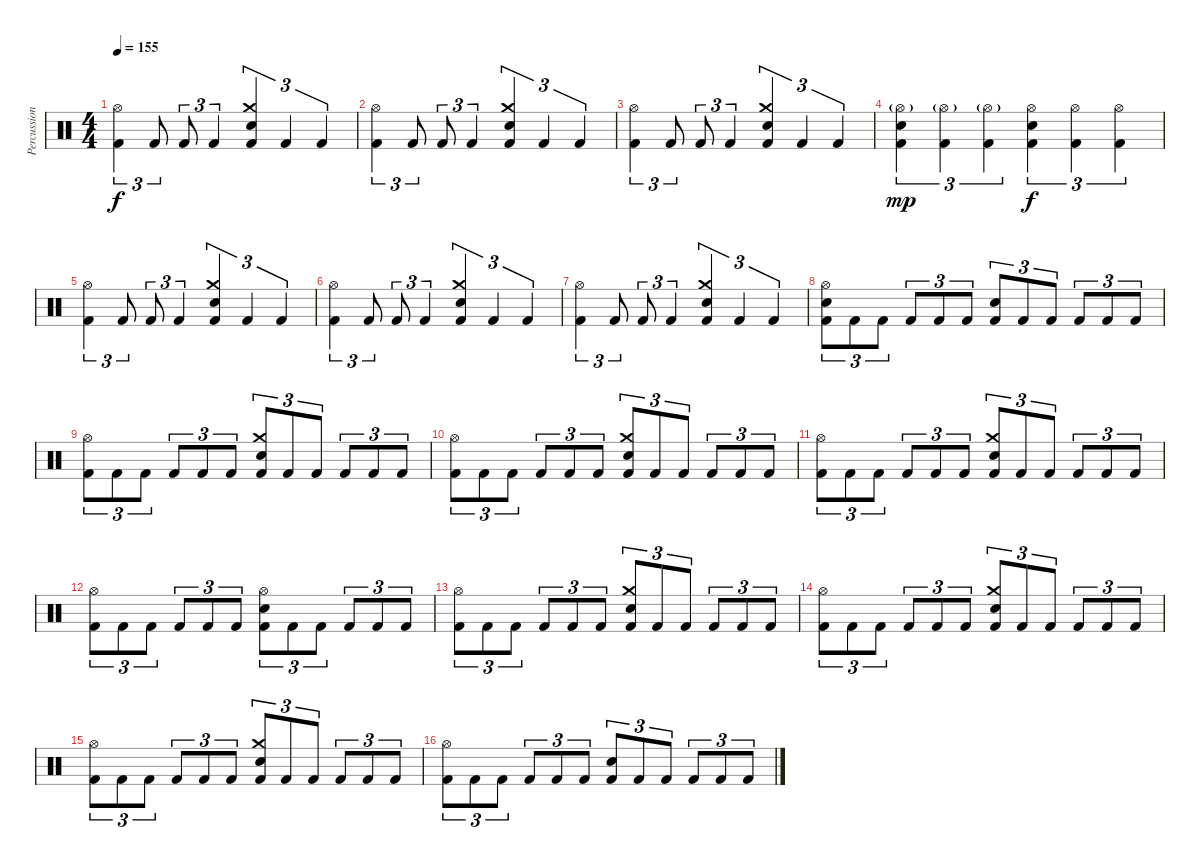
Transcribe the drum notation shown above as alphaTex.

\track ("Percussion" "Percussion") {instrument percussion}
\staff {score}
\articulation defaults
\ts (4 4)
\tempo 155
\clef neutral
\ks c
("Hi-Hat (open)" "Kick (hit) 2").4{tu (3 2) dy f} "Kick (hit) 2".8{tu (3 2)} "Kick (hit) 2".8{tu (3 2)} "Kick (hit) 2".4{tu (3 2)} ("Crash medium (hit)" "Electric Snare (hit)" "Kick (hit) 2").4{tu (3 2)} "Kick (hit) 2".4{tu (3 2)} "Kick (hit) 2".4{tu (3 2)} |
("Hi-Hat (open)" "Kick (hit) 2").4{tu (3 2)} "Kick (hit) 2".8{tu (3 2)} "Kick (hit) 2".8{tu (3 2)} "Kick (hit) 2".4{tu (3 2)} ("Crash medium (hit)" "Electric Snare (hit)" "Kick (hit) 2").4{tu (3 2)} "Kick (hit) 2".4{tu (3 2)} "Kick (hit) 2".4{tu (3 2)} |
("Hi-Hat (open)" "Kick (hit) 2").4{tu (3 2)} "Kick (hit) 2".8{tu (3 2)} "Kick (hit) 2".8{tu (3 2)} "Kick (hit) 2".4{tu (3 2)} ("Crash medium (hit)" "Electric Snare (hit)" "Kick (hit) 2").4{tu (3 2)} "Kick (hit) 2".4{tu (3 2)} "Kick (hit) 2".4{tu (3 2)} |
("Hi-Hat (open)"{g} "Electric Snare (hit)" "Kick (hit) 2").4{tu (3 2) dy mp} ("Hi-Hat (open)"{g} "Kick (hit) 2").4{tu (3 2)} ("Hi-Hat (open)"{g} "Kick (hit) 2").4{tu (3 2)} ("Hi-Hat (open)" "Electric Snare (hit)" "Kick (hit) 2").4{tu (3 2) dy f} ("Hi-Hat (open)" "Kick (hit) 2").4{tu (3 2)} ("Hi-Hat (open)" "Kick (hit) 2").4{tu (3 2)} |
("Hi-Hat (open)" "Kick (hit) 2").4{tu (3 2)} "Kick (hit) 2".8{tu (3 2)} "Kick (hit) 2".8{tu (3 2)} "Kick (hit) 2".4{tu (3 2)} ("Crash medium (hit)" "Electric Snare (hit)" "Kick (hit) 2").4{tu (3 2)} "Kick (hit) 2".4{tu (3 2)} "Kick (hit) 2".4{tu (3 2)} |
("Hi-Hat (open)" "Kick (hit) 2").4{tu (3 2)} "Kick (hit) 2".8{tu (3 2)} "Kick (hit) 2".8{tu (3 2)} "Kick (hit) 2".4{tu (3 2)} ("Crash medium (hit)" "Electric Snare (hit)" "Kick (hit) 2").4{tu (3 2)} "Kick (hit) 2".4{tu (3 2)} "Kick (hit) 2".4{tu (3 2)} |
("Hi-Hat (open)" "Kick (hit) 2").4{tu (3 2)} "Kick (hit) 2".8{tu (3 2)} "Kick (hit) 2".8{tu (3 2)} "Kick (hit) 2".4{tu (3 2)} ("Crash medium (hit)" "Electric Snare (hit)" "Kick (hit) 2").4{tu (3 2)} "Kick (hit) 2".4{tu (3 2)} "Kick (hit) 2".4{tu (3 2)} |
("Hi-Hat (open)" "Electric Snare (hit)" "Kick (hit) 2").8{tu (3 2)} "Kick (hit) 2".8{tu (3 2)} "Kick (hit) 2".8{tu (3 2)} "Kick (hit) 2".8{tu (3 2)} "Kick (hit) 2".8{tu (3 2)} "Kick (hit) 2".8{tu (3 2)} ("Electric Snare (hit)" "Kick (hit) 2").8{tu (3 2)} "Kick (hit) 2".8{tu (3 2)} "Kick (hit) 2".8{tu (3 2)} "Kick (hit) 2".8{tu (3 2)} "Kick (hit) 2".8{tu (3 2)} "Kick (hit) 2".8{tu (3 2)} |
("Hi-Hat (open)" "Kick (hit) 2").8{tu (3 2)} "Kick (hit) 2".8{tu (3 2)} "Kick (hit) 2".8{tu (3 2)} "Kick (hit) 2".8{tu (3 2)} "Kick (hit) 2".8{tu (3 2)} "Kick (hit) 2".8{tu (3 2)} ("Crash medium (hit)" "Electric Snare (hit)" "Kick (hit) 2").8{tu (3 2)} "Kick (hit) 2".8{tu (3 2)} "Kick (hit) 2".8{tu (3 2)} "Kick (hit) 2".8{tu (3 2)} "Kick (hit) 2".8{tu (3 2)} "Kick (hit) 2".8{tu (3 2)} |
("Hi-Hat (open)" "Kick (hit) 2").8{tu (3 2)} "Kick (hit) 2".8{tu (3 2)} "Kick (hit) 2".8{tu (3 2)} "Kick (hit) 2".8{tu (3 2)} "Kick (hit) 2".8{tu (3 2)} "Kick (hit) 2".8{tu (3 2)} ("Crash medium (hit)" "Electric Snare (hit)" "Kick (hit) 2").8{tu (3 2)} "Kick (hit) 2".8{tu (3 2)} "Kick (hit) 2".8{tu (3 2)} "Kick (hit) 2".8{tu (3 2)} "Kick (hit) 2".8{tu (3 2)} "Kick (hit) 2".8{tu (3 2)} |
("Hi-Hat (open)" "Kick (hit) 2").8{tu (3 2)} "Kick (hit) 2".8{tu (3 2)} "Kick (hit) 2".8{tu (3 2)} "Kick (hit) 2".8{tu (3 2)} "Kick (hit) 2".8{tu (3 2)} "Kick (hit) 2".8{tu (3 2)} ("Crash medium (hit)" "Electric Snare (hit)" "Kick (hit) 2").8{tu (3 2)} "Kick (hit) 2".8{tu (3 2)} "Kick (hit) 2".8{tu (3 2)} "Kick (hit) 2".8{tu (3 2)} "Kick (hit) 2".8{tu (3 2)} "Kick (hit) 2".8{tu (3 2)} |
("Hi-Hat (open)" "Kick (hit) 2").8{tu (3 2)} "Kick (hit) 2".8{tu (3 2)} "Kick (hit) 2".8{tu (3 2)} "Kick (hit) 2".8{tu (3 2)} "Kick (hit) 2".8{tu (3 2)} "Kick (hit) 2".8{tu (3 2)} ("Hi-Hat (open)" "Electric Snare (hit)" "Kick (hit) 2").8{tu (3 2)} "Kick (hit) 2".8{tu (3 2)} "Kick (hit) 2".8{tu (3 2)} "Kick (hit) 2".8{tu (3 2)} "Kick (hit) 2".8{tu (3 2)} "Kick (hit) 2".8{tu (3 2)} |
("Hi-Hat (open)" "Kick (hit) 2").8{tu (3 2)} "Kick (hit) 2".8{tu (3 2)} "Kick (hit) 2".8{tu (3 2)} "Kick (hit) 2".8{tu (3 2)} "Kick (hit) 2".8{tu (3 2)} "Kick (hit) 2".8{tu (3 2)} ("Crash medium (hit)" "Electric Snare (hit)" "Kick (hit) 2").8{tu (3 2)} "Kick (hit) 2".8{tu (3 2)} "Kick (hit) 2".8{tu (3 2)} "Kick (hit) 2".8{tu (3 2)} "Kick (hit) 2".8{tu (3 2)} "Kick (hit) 2".8{tu (3 2)} |
("Hi-Hat (open)" "Kick (hit) 2").8{tu (3 2)} "Kick (hit) 2".8{tu (3 2)} "Kick (hit) 2".8{tu (3 2)} "Kick (hit) 2".8{tu (3 2)} "Kick (hit) 2".8{tu (3 2)} "Kick (hit) 2".8{tu (3 2)} ("Crash medium (hit)" "Electric Snare (hit)" "Kick (hit) 2").8{tu (3 2)} "Kick (hit) 2".8{tu (3 2)} "Kick (hit) 2".8{tu (3 2)} "Kick (hit) 2".8{tu (3 2)} "Kick (hit) 2".8{tu (3 2)} "Kick (hit) 2".8{tu (3 2)} |
("Hi-Hat (open)" "Kick (hit) 2").8{tu (3 2)} "Kick (hit) 2".8{tu (3 2)} "Kick (hit) 2".8{tu (3 2)} "Kick (hit) 2".8{tu (3 2)} "Kick (hit) 2".8{tu (3 2)} "Kick (hit) 2".8{tu (3 2)} ("Crash medium (hit)" "Electric Snare (hit)" "Kick (hit) 2").8{tu (3 2)} "Kick (hit) 2".8{tu (3 2)} "Kick (hit) 2".8{tu (3 2)} "Kick (hit) 2".8{tu (3 2)} "Kick (hit) 2".8{tu (3 2)} "Kick (hit) 2".8{tu (3 2)} |
("Hi-Hat (open)" "Kick (hit) 2").8{tu (3 2)} "Kick (hit) 2".8{tu (3 2)} "Kick (hit) 2".8{tu (3 2)} "Kick (hit) 2".8{tu (3 2)} "Kick (hit) 2".8{tu (3 2)} "Kick (hit) 2".8{tu (3 2)} ("Electric Snare (hit)" "Kick (hit) 2").8{tu (3 2)} "Kick (hit) 2".8{tu (3 2)} "Kick (hit) 2".8{tu (3 2)} "Kick (hit) 2".8{tu (3 2)} "Kick (hit) 2".8{tu (3 2)} "Kick (hit) 2".8{tu (3 2)}
